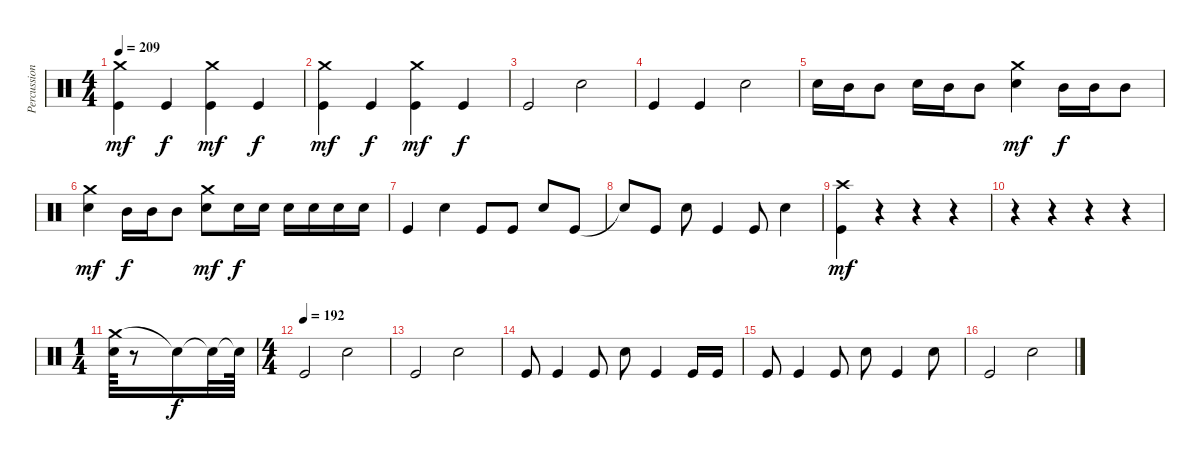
\track ("Percussion" "Percussion") {instrument percussion}
\staff {score}
\articulation defaults
\ts (4 4)
\tempo 209
\clef neutral
\ks c
("Crash medium (hit)" "Kick (hit)").4{dy mf} "Kick (hit)".4{dy f} ("Crash medium (hit)" "Kick (hit)").4{dy mf} "Kick (hit)".4{dy f} |
("Crash medium (hit)" "Kick (hit)").4{dy mf} "Kick (hit)".4{dy f} ("Crash medium (hit)" "Kick (hit)").4{dy mf} "Kick (hit)".4{dy f} |
"Kick (hit)".2 "Electric Snare (hit)".2 |
"Kick (hit)".4 "Kick (hit)".4 "Electric Snare (hit)".2 |
"Electric Snare (hit)".16 "Mid Tom (hit)".16 "Mid Tom (hit)".8 "Electric Snare (hit)".16 "Mid Tom (hit)".16 "Mid Tom (hit)".8 ("Crash medium (hit)" "Electric Snare (hit)").4{dy mf} "Mid Tom (hit)".16{dy f} "Mid Tom (hit)".16 "Mid Tom (hit)".8 |
("Crash medium (hit)" "Electric Snare (hit)").4{dy mf} "Mid Tom (hit)".16{dy f} "Mid Tom (hit)".16 "Mid Tom (hit)".8 ("Crash medium (hit)" "Electric Snare (hit)").8{dy mf} "Electric Snare (hit)".16{dy f} "Electric Snare (hit)".16 "Electric Snare (hit)".16 "Electric Snare (hit)".16 "Electric Snare (hit)".16 "Electric Snare (hit)".16 |
"Kick (hit)".4 "Electric Snare (hit)".4 "Kick (hit)".8 "Kick (hit)".8 "Electric Snare (hit)".8 "Kick (hit)".8 |
"Snare (hit)"{t}.8 "Kick (hit)".8 "Electric Snare (hit)".8 "Kick (hit)".4 "Kick (hit)".8 "Electric Snare (hit)".4 |
("Crash high (hit)" "Kick (hit)").4{dy mf} r.4 r.4 r.4 |
r.4 r.4 r.4 r.4 |
\ts (1 4)
("Crash medium (hit)" "Electric Snare (hit)").64 r.8 "Snare (hit)"{t}.16{dy f} "Snare (hit)"{t}.32 "Snare (hit)"{t}.64 |
\ts (4 4)
\tempo (192)
"Kick (hit)".2 "Electric Snare (hit)".2 |
"Kick (hit)".2 "Electric Snare (hit)".2 |
"Kick (hit)".8 "Kick (hit)".4 "Kick (hit)".8 "Electric Snare (hit)".8 "Kick (hit)".4 "Kick (hit)".16 "Kick (hit)".16 |
"Kick (hit)".8 "Kick (hit)".4 "Kick (hit)".8 "Electric Snare (hit)".8 "Kick (hit)".4 "Electric Snare (hit)".8 |
"Kick (hit)".2 "Electric Snare (hit)".2
